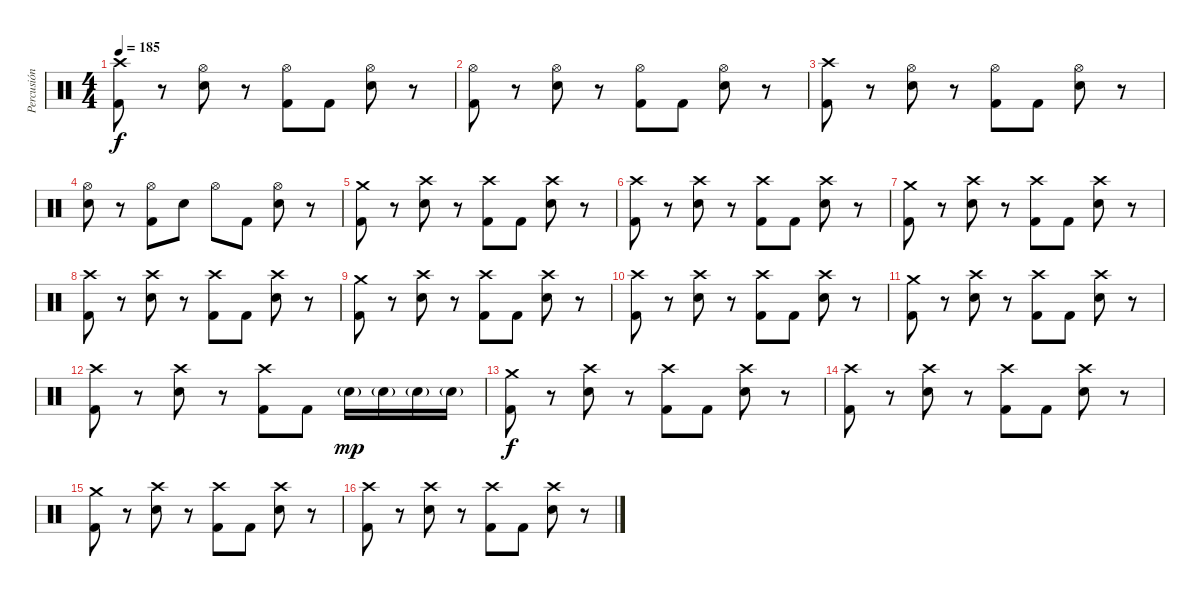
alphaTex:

\track ("Percusión" "Percusión") {instrument percussion}
\staff {score}
\articulation defaults
\ts (4 4)
\tempo 185
\clef neutral
\ks c
("Crash high (hit)" "Kick (hit) 2").8{dy f} r.8 ("Hi-Hat (open)" "Electric Snare (hit)").8 r.8 ("Hi-Hat (open)" "Kick (hit) 2").8 "Kick (hit) 2".8 ("Hi-Hat (open)" "Electric Snare (hit)").8 r.8 |
("Hi-Hat (open)" "Kick (hit) 2").8 r.8 ("Hi-Hat (open)" "Electric Snare (hit)").8 r.8 ("Hi-Hat (open)" "Kick (hit) 2").8 "Kick (hit) 2".8 ("Hi-Hat (open)" "Electric Snare (hit)").8 r.8 |
("Crash high (hit)" "Kick (hit) 2").8 r.8 ("Hi-Hat (open)" "Electric Snare (hit)").8 r.8 ("Hi-Hat (open)" "Kick (hit) 2").8 "Kick (hit) 2".8 ("Hi-Hat (open)" "Electric Snare (hit)").8 r.8 |
("Hi-Hat (open)" "Electric Snare (hit)").8 r.8 ("Hi-Hat (open)" "Kick (hit) 2").8 "Electric Snare (hit)".8 "Hi-Hat (open)".8 "Kick (hit) 2".8 ("Hi-Hat (open)" "Electric Snare (hit)").8 r.8 |
("Crash medium (hit)" "Kick (hit) 2").8 r.8 ("Crash high (hit)" "Electric Snare (hit)").8 r.8 ("Crash high (hit)" "Kick (hit) 2").8 "Kick (hit) 2".8 ("Crash high (hit)" "Electric Snare (hit)").8 r.8 |
("Crash high (hit)" "Kick (hit) 2").8 r.8 ("Crash high (hit)" "Electric Snare (hit)").8 r.8 ("Crash high (hit)" "Kick (hit) 2").8 "Kick (hit) 2".8 ("Crash high (hit)" "Electric Snare (hit)").8 r.8 |
("Crash medium (hit)" "Kick (hit) 2").8 r.8 ("Crash high (hit)" "Electric Snare (hit)").8 r.8 ("Crash high (hit)" "Kick (hit) 2").8 "Kick (hit) 2".8 ("Crash high (hit)" "Electric Snare (hit)").8 r.8 |
("Crash high (hit)" "Kick (hit) 2").8 r.8 ("Crash high (hit)" "Electric Snare (hit)").8 r.8 ("Crash high (hit)" "Kick (hit) 2").8 "Kick (hit) 2".8 ("Crash high (hit)" "Electric Snare (hit)").8 r.8 |
("Crash medium (hit)" "Kick (hit) 2").8 r.8 ("Crash high (hit)" "Electric Snare (hit)").8 r.8 ("Crash high (hit)" "Kick (hit) 2").8 "Kick (hit) 2".8 ("Crash high (hit)" "Electric Snare (hit)").8 r.8 |
("Crash high (hit)" "Kick (hit) 2").8 r.8 ("Crash high (hit)" "Electric Snare (hit)").8 r.8 ("Crash high (hit)" "Kick (hit) 2").8 "Kick (hit) 2".8 ("Crash high (hit)" "Electric Snare (hit)").8 r.8 |
("Crash medium (hit)" "Kick (hit) 2").8 r.8 ("Crash high (hit)" "Electric Snare (hit)").8 r.8 ("Crash high (hit)" "Kick (hit) 2").8 "Kick (hit) 2".8 ("Crash high (hit)" "Electric Snare (hit)").8 r.8 |
("Crash high (hit)" "Kick (hit) 2").8 r.8 ("Crash high (hit)" "Electric Snare (hit)").8 r.8 ("Crash high (hit)" "Kick (hit) 2").8 "Kick (hit) 2".8 "Electric Snare (hit)"{g}.16{dy mp} "Electric Snare (hit)"{g}.16 "Electric Snare (hit)"{g}.16 "Electric Snare (hit)"{g}.16 |
("Crash medium (hit)" "Kick (hit) 2").8{dy f} r.8 ("Crash high (hit)" "Electric Snare (hit)").8 r.8 ("Crash high (hit)" "Kick (hit) 2").8 "Kick (hit) 2".8 ("Crash high (hit)" "Electric Snare (hit)").8 r.8 |
("Crash high (hit)" "Kick (hit) 2").8 r.8 ("Crash high (hit)" "Electric Snare (hit)").8 r.8 ("Crash high (hit)" "Kick (hit) 2").8 "Kick (hit) 2".8 ("Crash high (hit)" "Electric Snare (hit)").8 r.8 |
("Crash medium (hit)" "Kick (hit) 2").8 r.8 ("Crash high (hit)" "Electric Snare (hit)").8 r.8 ("Crash high (hit)" "Kick (hit) 2").8 "Kick (hit) 2".8 ("Crash high (hit)" "Electric Snare (hit)").8 r.8 |
("Crash high (hit)" "Kick (hit) 2").8 r.8 ("Crash high (hit)" "Electric Snare (hit)").8 r.8 ("Crash high (hit)" "Kick (hit) 2").8 "Kick (hit) 2".8 ("Crash high (hit)" "Electric Snare (hit)").8 r.8
